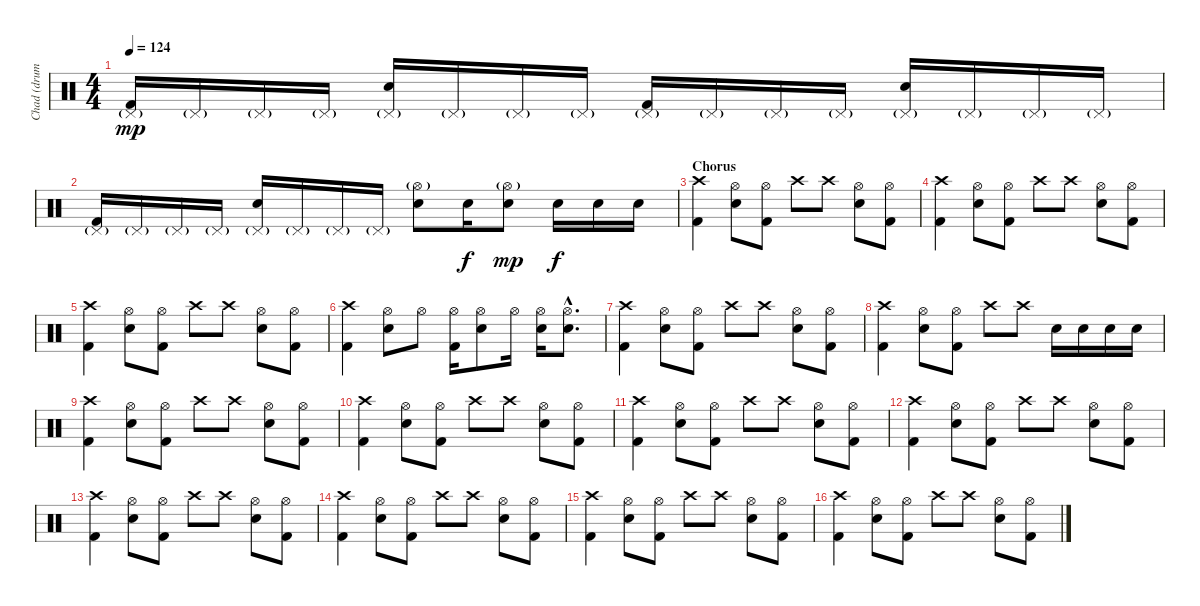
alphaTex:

\track ("Chad (drums)" "Chad (drum") {instrument percussion}
\staff {score}
\articulation defaults
\ts (4 4)
\tempo 124
\clef neutral
\ks c
("Kick (hit) 2" "Pedal Hi-Hat (hit)"{g}).16{dy mp} "Pedal Hi-Hat (hit)"{g}.16 "Pedal Hi-Hat (hit)"{g}.16 "Pedal Hi-Hat (hit)"{g}.16 ("Electric Snare (hit)" "Pedal Hi-Hat (hit)"{g}).16 "Pedal Hi-Hat (hit)"{g}.16 "Pedal Hi-Hat (hit)"{g}.16 "Pedal Hi-Hat (hit)"{g}.16 ("Kick (hit) 2" "Pedal Hi-Hat (hit)"{g}).16 "Pedal Hi-Hat (hit)"{g}.16 "Pedal Hi-Hat (hit)"{g}.16 "Pedal Hi-Hat (hit)"{g}.16 ("Electric Snare (hit)" "Pedal Hi-Hat (hit)"{g}).16 "Pedal Hi-Hat (hit)"{g}.16 "Pedal Hi-Hat (hit)"{g}.16 "Pedal Hi-Hat (hit)"{g}.16 |
("Kick (hit) 2" "Pedal Hi-Hat (hit)"{g}).16 "Pedal Hi-Hat (hit)"{g}.16 "Pedal Hi-Hat (hit)"{g}.16 "Pedal Hi-Hat (hit)"{g}.16 ("Electric Snare (hit)" "Pedal Hi-Hat (hit)"{g}).16 "Pedal Hi-Hat (hit)"{g}.16 "Pedal Hi-Hat (hit)"{g}.16 "Pedal Hi-Hat (hit)"{g}.16 ("Electric Snare (hit)" "Hi-Hat (open)"{g}).8 "Electric Snare (hit)".16{dy f} ("Electric Snare (hit)" "Hi-Hat (open)"{g}).8{dy mp} "Electric Snare (hit)".16{dy f} "Electric Snare (hit)".16 "Electric Snare (hit)".16 |
\section ("" "Chorus")
("Kick (hit) 2" "Crash high (hit)").4 ("Electric Snare (hit)" "Hi-Hat (open)").8 ("Kick (hit) 2" "Hi-Hat (open)").8 "Crash high (hit)".8 "Crash high (hit)".8 ("Electric Snare (hit)" "Hi-Hat (open)").8 ("Kick (hit) 2" "Hi-Hat (open)").8 |
("Kick (hit) 2" "Crash high (hit)").4 ("Electric Snare (hit)" "Hi-Hat (open)").8 ("Kick (hit) 2" "Hi-Hat (open)").8 "Crash high (hit)".8 "Crash high (hit)".8 ("Electric Snare (hit)" "Hi-Hat (open)").8 ("Kick (hit) 2" "Hi-Hat (open)").8 |
("Kick (hit) 2" "Crash high (hit)").4 ("Electric Snare (hit)" "Hi-Hat (open)").8 ("Kick (hit) 2" "Hi-Hat (open)").8 "Crash high (hit)".8 "Crash high (hit)".8 ("Electric Snare (hit)" "Hi-Hat (open)").8 ("Kick (hit) 2" "Hi-Hat (open)").8 |
("Kick (hit) 2" "Crash high (hit)").4 ("Electric Snare (hit)" "Hi-Hat (open)").8 "Hi-Hat (open)".8 ("Kick (hit) 2" "Hi-Hat (open)").16 ("Electric Snare (hit)" "Hi-Hat (open)").8 "Hi-Hat (open)".16 ("Electric Snare (hit)" "Hi-Hat (open)").16 ("Electric Snare (hit)"{hac} "Hi-Hat (open)"{hac}).8{d} |
("Kick (hit) 2" "Crash high (hit)").4 ("Electric Snare (hit)" "Hi-Hat (open)").8 ("Kick (hit) 2" "Hi-Hat (open)").8 "Crash high (hit)".8 "Crash high (hit)".8 ("Electric Snare (hit)" "Hi-Hat (open)").8 ("Kick (hit) 2" "Hi-Hat (open)").8 |
("Kick (hit) 2" "Crash high (hit)").4 ("Electric Snare (hit)" "Hi-Hat (open)").8 ("Kick (hit) 2" "Hi-Hat (open)").8 "Crash high (hit)".8 "Crash high (hit)".8 "Electric Snare (hit)".16 "Electric Snare (hit)".16 "Electric Snare (hit)".16 "Electric Snare (hit)".16 |
("Kick (hit) 2" "Crash high (hit)").4 ("Electric Snare (hit)" "Hi-Hat (open)").8 ("Kick (hit) 2" "Hi-Hat (open)").8 "Crash high (hit)".8 "Crash high (hit)".8 ("Electric Snare (hit)" "Hi-Hat (open)").8 ("Kick (hit) 2" "Hi-Hat (open)").8 |
("Kick (hit) 2" "Crash high (hit)").4 ("Electric Snare (hit)" "Hi-Hat (open)").8 ("Kick (hit) 2" "Hi-Hat (open)").8 "Crash high (hit)".8 "Crash high (hit)".8 ("Electric Snare (hit)" "Hi-Hat (open)").8 ("Kick (hit) 2" "Hi-Hat (open)").8 |
("Kick (hit) 2" "Crash high (hit)").4 ("Electric Snare (hit)" "Hi-Hat (open)").8 ("Kick (hit) 2" "Hi-Hat (open)").8 "Crash high (hit)".8 "Crash high (hit)".8 ("Electric Snare (hit)" "Hi-Hat (open)").8 ("Kick (hit) 2" "Hi-Hat (open)").8 |
("Kick (hit) 2" "Crash high (hit)").4 ("Electric Snare (hit)" "Hi-Hat (open)").8 ("Kick (hit) 2" "Hi-Hat (open)").8 "Crash high (hit)".8 "Crash high (hit)".8 ("Electric Snare (hit)" "Hi-Hat (open)").8 ("Kick (hit) 2" "Hi-Hat (open)").8 |
("Kick (hit) 2" "Crash high (hit)").4 ("Electric Snare (hit)" "Hi-Hat (open)").8 ("Kick (hit) 2" "Hi-Hat (open)").8 "Crash high (hit)".8 "Crash high (hit)".8 ("Electric Snare (hit)" "Hi-Hat (open)").8 ("Kick (hit) 2" "Hi-Hat (open)").8 |
("Kick (hit) 2" "Crash high (hit)").4 ("Electric Snare (hit)" "Hi-Hat (open)").8 ("Kick (hit) 2" "Hi-Hat (open)").8 "Crash high (hit)".8 "Crash high (hit)".8 ("Electric Snare (hit)" "Hi-Hat (open)").8 ("Kick (hit) 2" "Hi-Hat (open)").8 |
("Kick (hit) 2" "Crash high (hit)").4 ("Electric Snare (hit)" "Hi-Hat (open)").8 ("Kick (hit) 2" "Hi-Hat (open)").8 "Crash high (hit)".8 "Crash high (hit)".8 ("Electric Snare (hit)" "Hi-Hat (open)").8 ("Kick (hit) 2" "Hi-Hat (open)").8 |
("Kick (hit) 2" "Crash high (hit)").4 ("Electric Snare (hit)" "Hi-Hat (open)").8 ("Kick (hit) 2" "Hi-Hat (open)").8 "Crash high (hit)".8 "Crash high (hit)".8 ("Electric Snare (hit)" "Hi-Hat (open)").8 ("Kick (hit) 2" "Hi-Hat (open)").8
